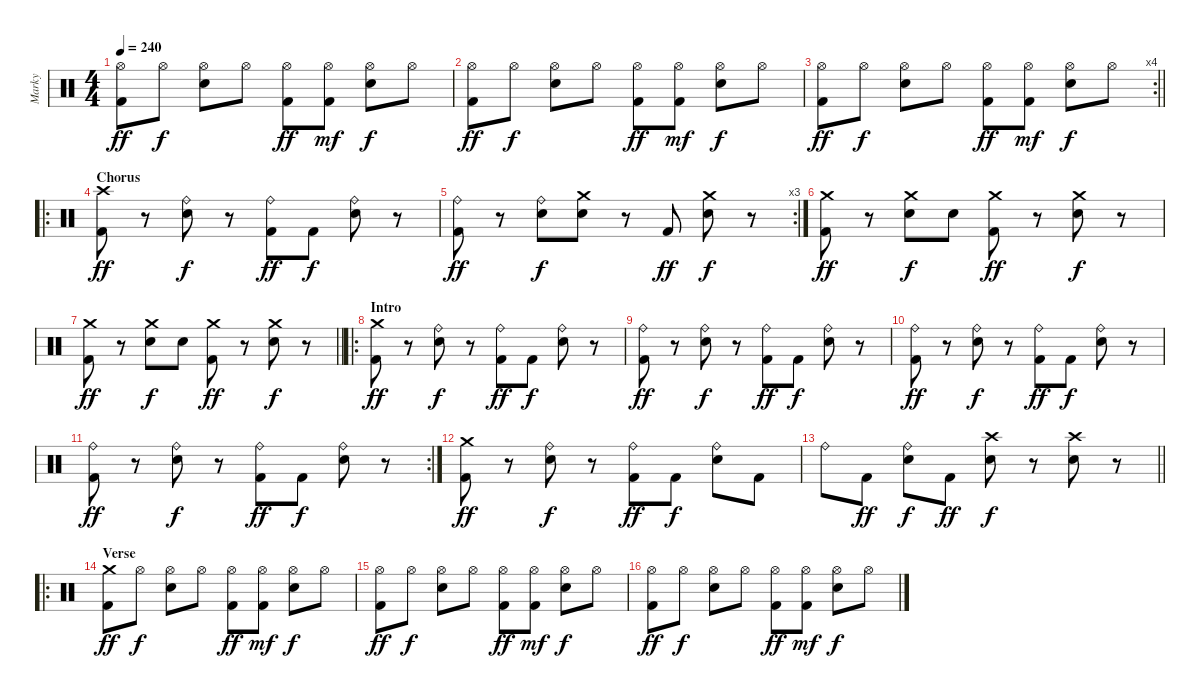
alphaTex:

\track ("Marky" "Marky") {instrument percussion}
\staff {score}
\articulation defaults
\ts (4 4)
\tempo 240
\clef neutral
\ks c
("Hi-Hat (open)" "Kick (hit) 2").8{dy ff} "Hi-Hat (open)".8{dy f} ("Hi-Hat (open)" "Snare (hit) 2").8 "Hi-Hat (open)".8 ("Hi-Hat (open)" "Kick (hit) 2").8{dy ff} ("Hi-Hat (open)" "Kick (hit) 2").8{dy mf} ("Hi-Hat (open)" "Snare (hit) 2").8{dy f} "Hi-Hat (open)".8 |
("Hi-Hat (open)" "Kick (hit) 2").8{dy ff} "Hi-Hat (open)".8{dy f} ("Hi-Hat (open)" "Snare (hit) 2").8 "Hi-Hat (open)".8 ("Hi-Hat (open)" "Kick (hit) 2").8{dy ff} ("Hi-Hat (open)" "Kick (hit) 2").8{dy mf} ("Hi-Hat (open)" "Snare (hit) 2").8{dy f} "Hi-Hat (open)".8 |
\rc 4
\barLineRight lightlight
("Hi-Hat (open)" "Kick (hit) 2").8{dy ff} "Hi-Hat (open)".8{dy f} ("Hi-Hat (open)" "Snare (hit) 2").8 "Hi-Hat (open)".8 ("Hi-Hat (open)" "Kick (hit) 2").8{dy ff} ("Hi-Hat (open)" "Kick (hit) 2").8{dy mf} ("Hi-Hat (open)" "Snare (hit) 2").8{dy f} "Hi-Hat (open)".8 |
\ro
\section ("" "Chorus")
("Crash high (hit)" "Kick (hit) 2").8{dy ff} r.8 ("Ride (bell)" "Snare (hit) 2").8{dy f} r.8 ("Ride (bell)" "Kick (hit) 2").8{dy ff} "Kick (hit) 2".8{dy f} ("Ride (bell)" "Snare (hit) 2").8 r.8 |
\rc 3
("Ride (bell)" "Kick (hit) 2").8{dy ff} r.8 ("Ride (bell)" "Snare (hit) 2").8{dy f} ("Crash medium (hit)" "Snare (hit) 2").8 r.8 "Kick (hit) 2".8{dy ff} ("Crash medium (hit)" "Snare (hit) 2").8{dy f} r.8 |
("Crash medium (hit)" "Kick (hit) 2").8{dy ff} r.8 ("Crash medium (hit)" "Snare (hit) 2").8{dy f} "Snare (hit) 2".8 ("Crash medium (hit)" "Kick (hit) 2").8{dy ff} r.8 ("Crash medium (hit)" "Snare (hit) 2").8{dy f} r.8 |
\barLineRight lightlight
("Crash medium (hit)" "Kick (hit) 2").8{dy ff} r.8 ("Crash medium (hit)" "Snare (hit) 2").8{dy f} "Snare (hit) 2".8 ("Crash medium (hit)" "Kick (hit) 2").8{dy ff} r.8 ("Crash medium (hit)" "Snare (hit) 2").8{dy f} r.8 |
\ro
\section ("" "Intro")
("Crash medium (hit)" "Kick (hit) 2").8{dy ff} r.8 ("Ride (bell)" "Snare (hit) 2").8{dy f} r.8 ("Ride (bell)" "Kick (hit) 2").8{dy ff} "Kick (hit) 2".8{dy f} ("Ride (bell)" "Snare (hit) 2").8 r.8 |
("Ride (bell)" "Kick (hit) 2").8{dy ff} r.8 ("Ride (bell)" "Snare (hit) 2").8{dy f} r.8 ("Ride (bell)" "Kick (hit) 2").8{dy ff} "Kick (hit) 2".8{dy f} ("Ride (bell)" "Snare (hit) 2").8 r.8 |
("Ride (bell)" "Kick (hit) 2").8{dy ff} r.8 ("Ride (bell)" "Snare (hit) 2").8{dy f} r.8 ("Ride (bell)" "Kick (hit) 2").8{dy ff} "Kick (hit) 2".8{dy f} ("Ride (bell)" "Snare (hit) 2").8 r.8 |
\rc 2
("Ride (bell)" "Kick (hit) 2").8{dy ff} r.8 ("Ride (bell)" "Snare (hit) 2").8{dy f} r.8 ("Ride (bell)" "Kick (hit) 2").8{dy ff} "Kick (hit) 2".8{dy f} ("Ride (bell)" "Snare (hit) 2").8 r.8 |
("Crash medium (hit)" "Kick (hit) 2").8{dy ff} r.8 ("Ride (bell)" "Snare (hit) 2").8{dy f} r.8 ("Ride (bell)" "Kick (hit) 2").8{dy ff} "Kick (hit) 2".8{dy f} ("Ride (bell)" "Snare (hit) 2").8 "Kick (hit) 2".8 |
\barLineRight lightlight "Ride (bell)".8 "Kick (hit) 2".8{dy ff}
("Ride (bell)" "Snare (hit) 2").8{dy f} "Kick (hit) 2".8{dy ff} ("Crash high (hit)" "Snare (hit) 2").8{dy f} r.8 ("Crash high (hit)" "Snare (hit) 2").8 r.8 |
\ro
\section ("" "Verse")
("Crash medium (hit)" "Kick (hit) 2").8{dy ff} "Hi-Hat (open)".8{dy f} ("Hi-Hat (open)" "Snare (hit) 2").8 "Hi-Hat (open)".8 ("Hi-Hat (open)" "Kick (hit) 2").8{dy ff} ("Hi-Hat (open)" "Kick (hit) 2").8{dy mf} ("Hi-Hat (open)" "Snare (hit) 2").8{dy f} "Hi-Hat (open)".8 |
("Hi-Hat (open)" "Kick (hit) 2").8{dy ff} "Hi-Hat (open)".8{dy f} ("Hi-Hat (open)" "Snare (hit) 2").8 "Hi-Hat (open)".8 ("Hi-Hat (open)" "Kick (hit) 2").8{dy ff} ("Hi-Hat (open)" "Kick (hit) 2").8{dy mf} ("Hi-Hat (open)" "Snare (hit) 2").8{dy f} "Hi-Hat (open)".8 |
("Hi-Hat (open)" "Kick (hit) 2").8{dy ff} "Hi-Hat (open)".8{dy f} ("Hi-Hat (open)" "Snare (hit) 2").8 "Hi-Hat (open)".8 ("Hi-Hat (open)" "Kick (hit) 2").8{dy ff} ("Hi-Hat (open)" "Kick (hit) 2").8{dy mf} ("Hi-Hat (open)" "Snare (hit) 2").8{dy f} "Hi-Hat (open)".8
